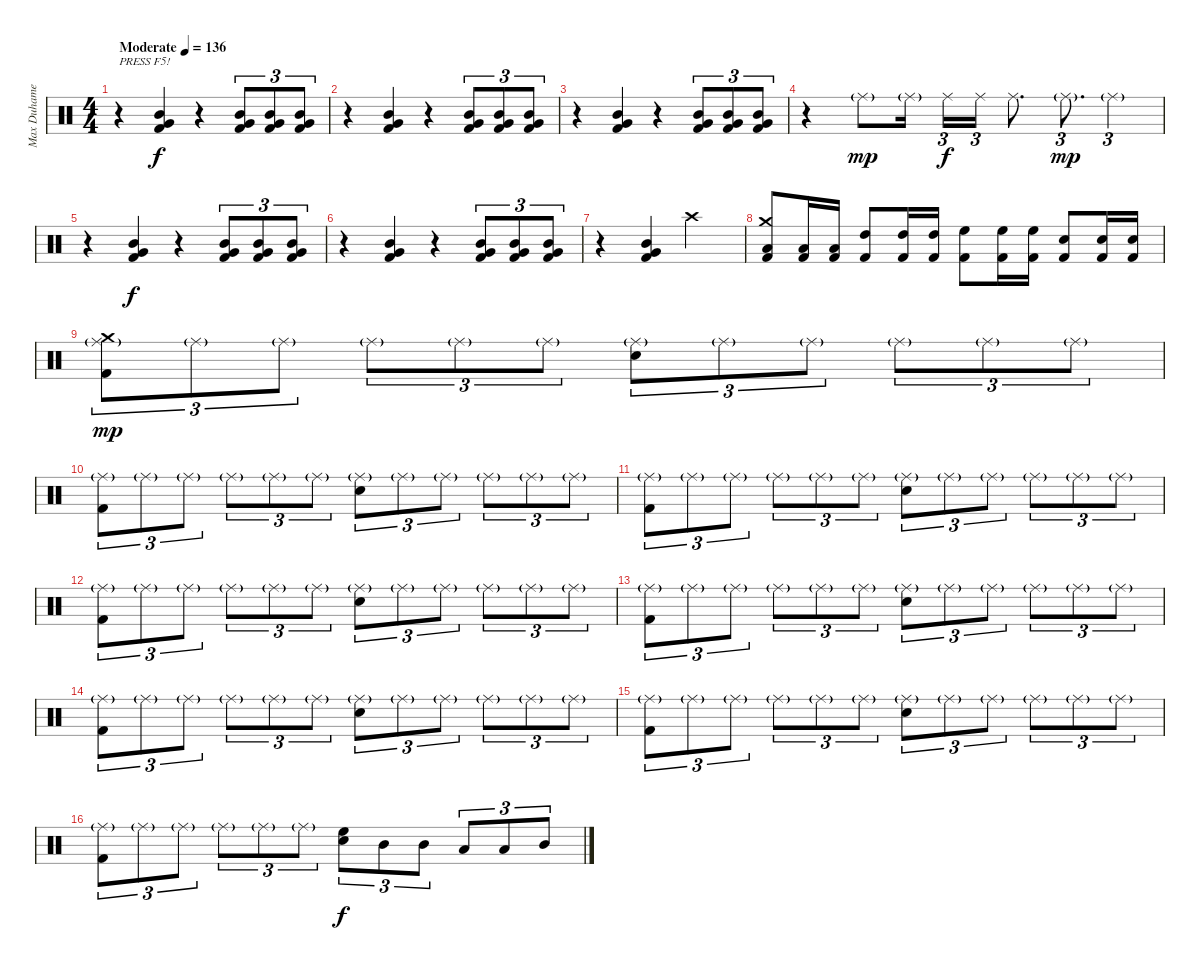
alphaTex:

\track ("Max Duhamel (Drums)" "Max Duhame") {instrument percussion}
\staff {score}
\articulation defaults
\ts (4 4)
\tempo (136 "Moderate")
\clef neutral
\ks c
r.4{txt "PRESS F5!" dy f} ("Mid Tom (hit)" "Very Low Tom (hit)" "Kick (hit) 2").4 r.4 ("Mid Tom (hit)" "Very Low Tom (hit)" "Kick (hit) 2").8{tu (3 2)} ("Mid Tom (hit)" "Very Low Tom (hit)" "Kick (hit) 2").8{tu (3 2)} ("Mid Tom (hit)" "Very Low Tom (hit)" "Kick (hit) 2").8{tu (3 2)} |
r.4 ("Mid Tom (hit)" "Very Low Tom (hit)" "Kick (hit) 2").4 r.4 ("Mid Tom (hit)" "Very Low Tom (hit)" "Kick (hit) 2").8{tu (3 2)} ("Mid Tom (hit)" "Very Low Tom (hit)" "Kick (hit) 2").8{tu (3 2)} ("Mid Tom (hit)" "Very Low Tom (hit)" "Kick (hit) 2").8{tu (3 2)} |
r.4 ("Mid Tom (hit)" "Very Low Tom (hit)" "Kick (hit) 2").4 r.4 ("Mid Tom (hit)" "Very Low Tom (hit)" "Kick (hit) 2").8{tu (3 2)} ("Mid Tom (hit)" "Very Low Tom (hit)" "Kick (hit) 2").8{tu (3 2)} ("Mid Tom (hit)" "Very Low Tom (hit)" "Kick (hit) 2").8{tu (3 2)} |
r.4 "Ride (middle)"{g}.8{dy mp} "Ride (middle)"{g}.16{beam splitsecondary} "Ride (middle)".16{tu (3 2) dy f} "Ride (middle)".16{tu (3 2)} "Ride (middle)".8{d} "Ride (middle)"{g}.8{d tu (3 2) dy mp} "Ride (middle)"{g}.4{tu (3 2)} |
r.4 ("Mid Tom (hit)" "Very Low Tom (hit)" "Kick (hit) 2").4{dy f} r.4 ("Mid Tom (hit)" "Very Low Tom (hit)" "Kick (hit) 2").8{tu (3 2)} ("Mid Tom (hit)" "Very Low Tom (hit)" "Kick (hit) 2").8{tu (3 2)} ("Mid Tom (hit)" "Very Low Tom (hit)" "Kick (hit) 2").8{tu (3 2)} |
r.4 ("Mid Tom (hit)" "Very Low Tom (hit)" "Kick (hit) 2").4 r.4 ("Mid Tom (hit)" "Very Low Tom (hit)" "Kick (hit) 2").8{tu (3 2)} ("Mid Tom (hit)" "Very Low Tom (hit)" "Kick (hit) 2").8{tu (3 2)} ("Mid Tom (hit)" "Very Low Tom (hit)" "Kick (hit) 2").8{tu (3 2)} |
r.4 ("Mid Tom (hit)" "Very Low Tom (hit)" "Kick (hit) 2").4 "Crash high (hit)".2 |
("Crash medium (hit)" "Low Tom (hit)" "Kick (hit) 2").8 ("Low Tom (hit)" "Kick (hit) 2").16 ("Low Tom (hit)" "Kick (hit) 2").16 ("High Tom (hit)" "Kick (hit) 2").8 ("High Tom (hit)" "Kick (hit) 2").16 ("High Tom (hit)" "Kick (hit) 2").16 ("High Floor Tom (hit)" "Kick (hit) 2").8 ("High Floor Tom (hit)" "Kick (hit) 2").16 ("High Floor Tom (hit)" "Kick (hit) 2").16 ("Electric Snare (hit)" "Kick (hit) 2").8 ("Electric Snare (hit)" "Kick (hit) 2").16 ("Electric Snare (hit)" "Kick (hit) 2").16 |
("Crash medium (hit)" "Ride (middle)"{g} "Kick (hit) 2").8{tu (3 2) dy mp} "Ride (middle)"{g}.8{tu (3 2)} "Ride (middle)"{g}.8{tu (3 2)} "Ride (middle)"{g}.8{tu (3 2)} "Ride (middle)"{g}.8{tu (3 2)} "Ride (middle)"{g}.8{tu (3 2)} ("Ride (middle)"{g} "Electric Snare (hit)").8{tu (3 2)} "Ride (middle)"{g}.8{tu (3 2)} "Ride (middle)"{g}.8{tu (3 2)} "Ride (middle)"{g}.8{tu (3 2)} "Ride (middle)"{g}.8{tu (3 2)} "Ride (middle)"{g}.8{tu (3 2)} |
("Ride (middle)"{g} "Kick (hit) 2").8{tu (3 2)} "Ride (middle)"{g}.8{tu (3 2)} "Ride (middle)"{g}.8{tu (3 2)} "Ride (middle)"{g}.8{tu (3 2)} "Ride (middle)"{g}.8{tu (3 2)} "Ride (middle)"{g}.8{tu (3 2)} ("Ride (middle)"{g} "Electric Snare (hit)").8{tu (3 2)} "Ride (middle)"{g}.8{tu (3 2)} "Ride (middle)"{g}.8{tu (3 2)} "Ride (middle)"{g}.8{tu (3 2)} "Ride (middle)"{g}.8{tu (3 2)} "Ride (middle)"{g}.8{tu (3 2)} |
("Ride (middle)"{g} "Kick (hit) 2").8{tu (3 2)} "Ride (middle)"{g}.8{tu (3 2)} "Ride (middle)"{g}.8{tu (3 2)} "Ride (middle)"{g}.8{tu (3 2)} "Ride (middle)"{g}.8{tu (3 2)} "Ride (middle)"{g}.8{tu (3 2)} ("Ride (middle)"{g} "Electric Snare (hit)").8{tu (3 2)} "Ride (middle)"{g}.8{tu (3 2)} "Ride (middle)"{g}.8{tu (3 2)} "Ride (middle)"{g}.8{tu (3 2)} "Ride (middle)"{g}.8{tu (3 2)} "Ride (middle)"{g}.8{tu (3 2)} |
("Ride (middle)"{g} "Kick (hit) 2").8{tu (3 2)} "Ride (middle)"{g}.8{tu (3 2)} "Ride (middle)"{g}.8{tu (3 2)} "Ride (middle)"{g}.8{tu (3 2)} "Ride (middle)"{g}.8{tu (3 2)} "Ride (middle)"{g}.8{tu (3 2)} ("Ride (middle)"{g} "Electric Snare (hit)").8{tu (3 2)} "Ride (middle)"{g}.8{tu (3 2)} "Ride (middle)"{g}.8{tu (3 2)} "Ride (middle)"{g}.8{tu (3 2)} "Ride (middle)"{g}.8{tu (3 2)} "Ride (middle)"{g}.8{tu (3 2)} |
("Ride (middle)"{g} "Kick (hit) 2").8{tu (3 2)} "Ride (middle)"{g}.8{tu (3 2)} "Ride (middle)"{g}.8{tu (3 2)} "Ride (middle)"{g}.8{tu (3 2)} "Ride (middle)"{g}.8{tu (3 2)} "Ride (middle)"{g}.8{tu (3 2)} ("Ride (middle)"{g} "Electric Snare (hit)").8{tu (3 2)} "Ride (middle)"{g}.8{tu (3 2)} "Ride (middle)"{g}.8{tu (3 2)} "Ride (middle)"{g}.8{tu (3 2)} "Ride (middle)"{g}.8{tu (3 2)} "Ride (middle)"{g}.8{tu (3 2)} |
("Ride (middle)"{g} "Kick (hit) 2").8{tu (3 2)} "Ride (middle)"{g}.8{tu (3 2)} "Ride (middle)"{g}.8{tu (3 2)} "Ride (middle)"{g}.8{tu (3 2)} "Ride (middle)"{g}.8{tu (3 2)} "Ride (middle)"{g}.8{tu (3 2)} ("Ride (middle)"{g} "Electric Snare (hit)").8{tu (3 2)} "Ride (middle)"{g}.8{tu (3 2)} "Ride (middle)"{g}.8{tu (3 2)} "Ride (middle)"{g}.8{tu (3 2)} "Ride (middle)"{g}.8{tu (3 2)} "Ride (middle)"{g}.8{tu (3 2)} |
("Ride (middle)"{g} "Kick (hit) 2").8{tu (3 2)} "Ride (middle)"{g}.8{tu (3 2)} "Ride (middle)"{g}.8{tu (3 2)} "Ride (middle)"{g}.8{tu (3 2)} "Ride (middle)"{g}.8{tu (3 2)} "Ride (middle)"{g}.8{tu (3 2)} ("Ride (middle)"{g} "Electric Snare (hit)").8{tu (3 2)} "Ride (middle)"{g}.8{tu (3 2)} "Ride (middle)"{g}.8{tu (3 2)} "Ride (middle)"{g}.8{tu (3 2)} "Ride (middle)"{g}.8{tu (3 2)} "Ride (middle)"{g}.8{tu (3 2)} |
("Ride (middle)"{g} "Kick (hit) 2").8{tu (3 2)} "Ride (middle)"{g}.8{tu (3 2)} "Ride (middle)"{g}.8{tu (3 2)} "Ride (middle)"{g}.8{tu (3 2)} "Ride (middle)"{g}.8{tu (3 2)} "Ride (middle)"{g}.8{tu (3 2)} ("High Floor Tom (hit)" "Electric Snare (hit)").8{tu (3 2) dy f} "Mid Tom (hit)".8{tu (3 2)} "Mid Tom (hit)".8{tu (3 2)} "Low Tom (hit)".8{tu (3 2)} "Low Tom (hit)".8{tu (3 2)} "Mid Tom (hit)".8{tu (3 2)}
